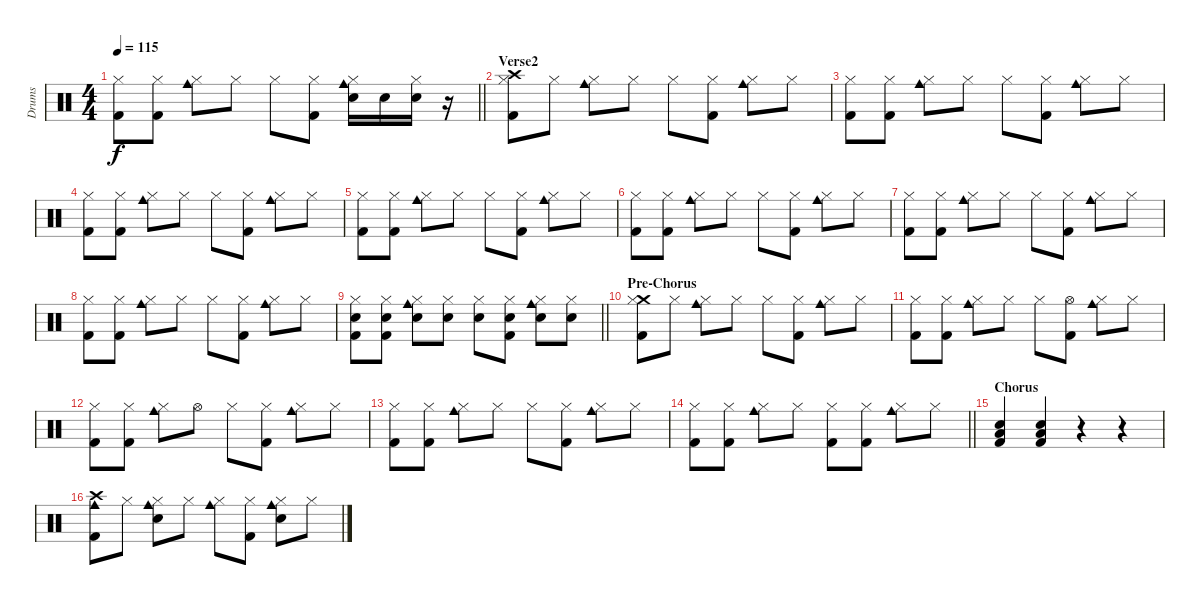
\track ("Drums" "Drums") {instrument percussion}
\staff {score}
\articulation defaults
\ts (4 4)
\tempo 115
\clef neutral
\barLineRight lightlight
\ks c
("Hi-Hat (closed)" "Kick (hit) 2").8{dy f} ("Hi-Hat (closed)" "Kick (hit) 2").8 ("Hi-Hat (closed)" "Cowbell medium (hit)").8 "Hi-Hat (closed)".8 "Hi-Hat (closed)".8 ("Hi-Hat (closed)" "Kick (hit) 2").8 ("Hi-Hat (closed)" "Cowbell medium (hit)" "Snare (hit) 2").16 "Snare (hit) 2".16 ("Hi-Hat (closed)" "Snare (hit) 2").16 r.16 |
\section ("" "Verse2")
("Crash high (hit)" "Hi-Hat (closed)" "Kick (hit) 2").8 "Hi-Hat (closed)".8 ("Hi-Hat (closed)" "Cowbell medium (hit)").8 "Hi-Hat (closed)".8 "Hi-Hat (closed)".8 ("Hi-Hat (closed)" "Kick (hit) 2").8 ("Hi-Hat (closed)" "Cowbell medium (hit)").8 "Hi-Hat (closed)".8 |
("Hi-Hat (closed)" "Kick (hit) 2").8 ("Hi-Hat (closed)" "Kick (hit) 2").8 ("Hi-Hat (closed)" "Cowbell medium (hit)").8 "Hi-Hat (closed)".8 "Hi-Hat (closed)".8 ("Hi-Hat (closed)" "Kick (hit) 2").8 ("Hi-Hat (closed)" "Cowbell medium (hit)").8 "Hi-Hat (closed)".8 |
("Hi-Hat (closed)" "Kick (hit) 2").8 ("Hi-Hat (closed)" "Kick (hit) 2").8 ("Hi-Hat (closed)" "Cowbell medium (hit)").8 "Hi-Hat (closed)".8 "Hi-Hat (closed)".8 ("Hi-Hat (closed)" "Kick (hit) 2").8 ("Hi-Hat (closed)" "Cowbell medium (hit)").8 "Hi-Hat (closed)".8 |
("Hi-Hat (closed)" "Kick (hit) 2").8 ("Hi-Hat (closed)" "Kick (hit) 2").8 ("Hi-Hat (closed)" "Cowbell medium (hit)").8 "Hi-Hat (closed)".8 "Hi-Hat (closed)".8 ("Hi-Hat (closed)" "Kick (hit) 2").8 ("Hi-Hat (closed)" "Cowbell medium (hit)").8 "Hi-Hat (closed)".8 |
("Hi-Hat (closed)" "Kick (hit) 2").8 ("Hi-Hat (closed)" "Kick (hit) 2").8 ("Hi-Hat (closed)" "Cowbell medium (hit)").8 "Hi-Hat (closed)".8 "Hi-Hat (closed)".8 ("Hi-Hat (closed)" "Kick (hit) 2").8 ("Hi-Hat (closed)" "Cowbell medium (hit)").8 "Hi-Hat (closed)".8 |
("Hi-Hat (closed)" "Kick (hit) 2").8 ("Hi-Hat (closed)" "Kick (hit) 2").8 ("Hi-Hat (closed)" "Cowbell medium (hit)").8 "Hi-Hat (closed)".8 "Hi-Hat (closed)".8 ("Hi-Hat (closed)" "Kick (hit) 2").8 ("Hi-Hat (closed)" "Cowbell medium (hit)").8 "Hi-Hat (closed)".8 |
("Hi-Hat (closed)" "Kick (hit) 2").8 ("Hi-Hat (closed)" "Kick (hit) 2").8 ("Hi-Hat (closed)" "Cowbell medium (hit)").8 "Hi-Hat (closed)".8 "Hi-Hat (closed)".8 ("Hi-Hat (closed)" "Kick (hit) 2").8 ("Hi-Hat (closed)" "Cowbell medium (hit)").8 "Hi-Hat (closed)".8 |
\barLineRight lightlight
("Hand Clap (hit)" "Hi-Hat (closed)" "Kick (hit) 2").8 ("Hand Clap (hit)" "Hi-Hat (closed)" "Kick (hit) 2").8 ("Hand Clap (hit)" "Hi-Hat (closed)" "Cowbell medium (hit)").8 ("Hand Clap (hit)" "Hi-Hat (closed)").8 ("Hand Clap (hit)" "Hi-Hat (closed)").8 ("Hand Clap (hit)" "Hi-Hat (closed)" "Kick (hit) 2").8 ("Hand Clap (hit)" "Hi-Hat (closed)" "Cowbell medium (hit)").8 ("Hand Clap (hit)" "Hi-Hat (closed)").8 |
\section ("" "Pre-Chorus")
("Crash medium (hit)" "Hi-Hat (closed)" "Kick (hit) 2").8 "Hi-Hat (closed)".8 ("Hi-Hat (closed)" "Cowbell medium (hit)").8 "Hi-Hat (closed)".8 "Hi-Hat (closed)".8 ("Hi-Hat (closed)" "Kick (hit) 2").8 ("Hi-Hat (closed)" "Cowbell medium (hit)").8 "Hi-Hat (closed)".8 |
("Hi-Hat (closed)" "Kick (hit) 2").8 ("Hi-Hat (closed)" "Kick (hit) 2").8 ("Hi-Hat (closed)" "Cowbell medium (hit)").8 "Hi-Hat (closed)".8 "Hi-Hat (closed)".8 ("Hi-Hat (open)" "Kick (hit) 2").8 ("Hi-Hat (closed)" "Cowbell medium (hit)").8 "Hi-Hat (closed)".8 |
("Hi-Hat (closed)" "Kick (hit) 2").8 ("Hi-Hat (closed)" "Kick (hit) 2").8 ("Hi-Hat (closed)" "Cowbell medium (hit)").8 "Hi-Hat (open)".8 "Hi-Hat (closed)".8 ("Hi-Hat (closed)" "Kick (hit) 2").8 ("Hi-Hat (closed)" "Cowbell medium (hit)").8 "Hi-Hat (closed)".8 |
("Hi-Hat (closed)" "Kick (hit) 2").8 ("Hi-Hat (closed)" "Kick (hit) 2").8 ("Hi-Hat (closed)" "Cowbell medium (hit)").8 "Hi-Hat (closed)".8 "Hi-Hat (closed)".8 ("Hi-Hat (closed)" "Kick (hit) 2").8 ("Hi-Hat (closed)" "Cowbell medium (hit)").8 "Hi-Hat (closed)".8 |
\barLineRight lightlight
("Hi-Hat (closed)" "Kick (hit) 2").8 ("Hi-Hat (closed)" "Kick (hit) 2").8 ("Hi-Hat (closed)" "Cowbell medium (hit)").8 "Hi-Hat (closed)".8 ("Hi-Hat (closed)" "Kick (hit) 2").8 ("Hi-Hat (closed)" "Kick (hit) 2").8 ("Hi-Hat (closed)" "Cowbell medium (hit)").8 "Hi-Hat (closed)".8 |
\section ("" "Chorus")
("Hand Clap (hit)" "Low Floor Tom (hit)" "Kick (hit) 2").4 ("Hand Clap (hit)" "Low Floor Tom (hit)" "Kick (hit) 2").4 r.4 r.4 |
("Crash high (hit)" "Cowbell medium (hit)" "Kick (hit) 2").8 "Hi-Hat (closed)".8 ("Hi-Hat (closed)" "Cowbell medium (hit)" "Snare (hit) 2").8 "Hi-Hat (closed)".8 ("Hi-Hat (closed)" "Cowbell medium (hit)").8 ("Hi-Hat (closed)" "Kick (hit) 2").8 ("Hi-Hat (closed)" "Cowbell medium (hit)" "Snare (hit) 2").8 "Hi-Hat (closed)".8
